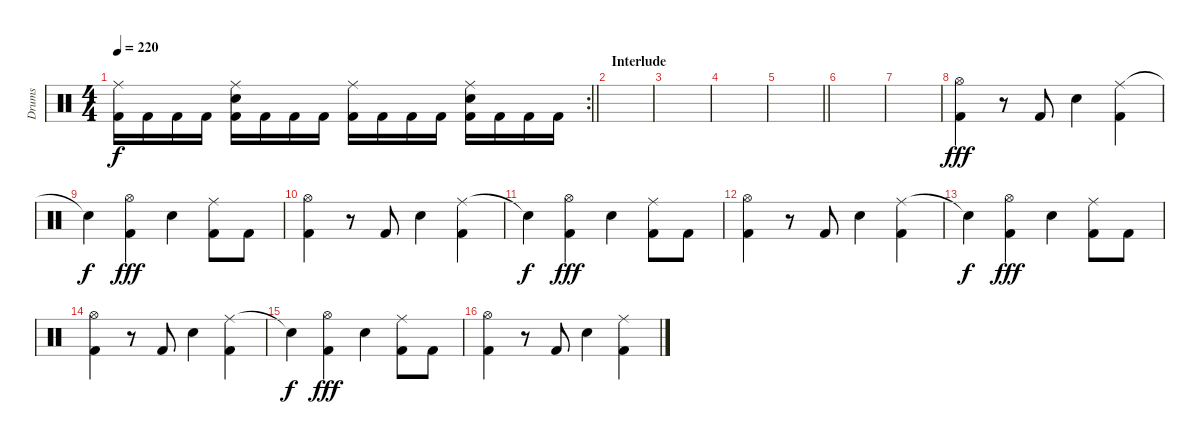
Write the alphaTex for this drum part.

\track ("Drums" "Drums") {instrument percussion}
\staff {score}
\articulation defaults
\rc 2
\ts (4 4)
\tempo 220
\clef neutral
\barLineRight lightlight
\ks c
("Ride (middle)" "Kick (hit) 2").16{dy f} "Kick (hit) 2".16 "Kick (hit) 2".16 "Kick (hit) 2".16 ("Ride (middle)" "Electric Snare (hit)" "Kick (hit) 2").16 "Kick (hit) 2".16 "Kick (hit) 2".16 "Kick (hit) 2".16 ("Ride (middle)" "Kick (hit) 2").16 "Kick (hit) 2".16 "Kick (hit) 2".16 "Kick (hit) 2".16 ("Ride (middle)" "Electric Snare (hit)" "Kick (hit) 2").16 "Kick (hit) 2".16 "Kick (hit) 2".16 "Kick (hit) 2".16 |
\section ("" "Interlude")
|
|
|
\barLineRight lightlight
|
|
|
("Hi-Hat (open)" "Kick (hit) 2").4{dy fff} r.8 "Kick (hit) 2".8 "Electric Snare (hit)".4 ("Ride (middle)" "Kick (hit) 2").4 |
"Snare (hit)"{t}.4{dy f} ("Hi-Hat (open)" "Kick (hit) 2").4{dy fff} "Electric Snare (hit)".4 ("Ride (middle)" "Kick (hit) 2").8 "Kick (hit) 2".8 |
("Hi-Hat (open)" "Kick (hit) 2").4 r.8 "Kick (hit) 2".8 "Electric Snare (hit)".4 ("Ride (middle)" "Kick (hit) 2").4 |
"Snare (hit)"{t}.4{dy f} ("Hi-Hat (open)" "Kick (hit) 2").4{dy fff} "Electric Snare (hit)".4 ("Ride (middle)" "Kick (hit) 2").8 "Kick (hit) 2".8 |
("Hi-Hat (open)" "Kick (hit) 2").4 r.8 "Kick (hit) 2".8 "Electric Snare (hit)".4 ("Ride (middle)" "Kick (hit) 2").4 |
"Snare (hit)"{t}.4{dy f} ("Hi-Hat (open)" "Kick (hit) 2").4{dy fff} "Electric Snare (hit)".4 ("Ride (middle)" "Kick (hit) 2").8 "Kick (hit) 2".8 |
("Hi-Hat (open)" "Kick (hit) 2").4 r.8 "Kick (hit) 2".8 "Electric Snare (hit)".4 ("Ride (middle)" "Kick (hit) 2").4 |
"Snare (hit)"{t}.4{dy f} ("Hi-Hat (open)" "Kick (hit) 2").4{dy fff} "Electric Snare (hit)".4 ("Ride (middle)" "Kick (hit) 2").8 "Kick (hit) 2".8 |
("Hi-Hat (open)" "Kick (hit) 2").4 r.8 "Kick (hit) 2".8 "Electric Snare (hit)".4 ("Ride (middle)" "Kick (hit) 2").4
